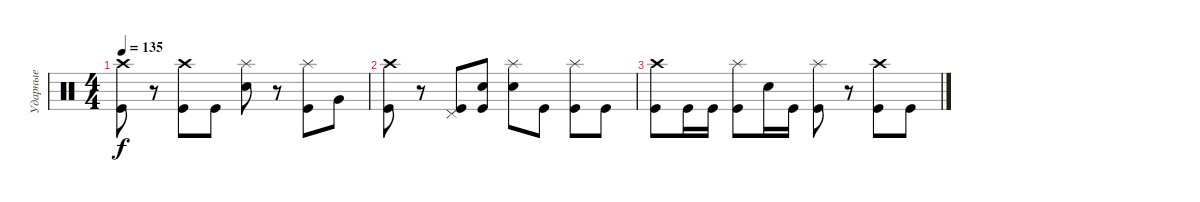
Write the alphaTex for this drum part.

\track ("Ударные" "Ударные") {instrument percussion}
\staff {score}
\articulation defaults
\ts (4 4)
\tempo 135
\clef neutral
\ks c
("Crash high (hit)" "Kick (hit)").8{dy f} r.8 ("Crash high (hit)" "Kick (hit)").8 "Kick (hit)".8 ("Splash (hit)" "Electric Snare (hit)").8 r.8 ("Splash (hit)" "Kick (hit)").8 "Very Low Tom (hit)".8 |
("Crash high (hit)" "Kick (hit)").8 r.8 ("Pedal Hi-Hat (hit)" "Kick (hit)").8 ("Electric Snare (hit)" "Kick (hit)").8 ("Splash (hit)" "Electric Snare (hit)").8 "Kick (hit)".8 ("Splash (hit)" "Kick (hit)").8 "Kick (hit)".8 |
("Crash high (hit)" "Kick (hit)").8 "Kick (hit)".16 "Kick (hit)".16 ("Splash (hit)" "Kick (hit)").8 "Electric Snare (hit)".16 "Kick (hit)".16 ("Splash (hit)" "Kick (hit)").8 r.8 ("Crash high (hit)" "Kick (hit)").8 "Kick (hit)".8
